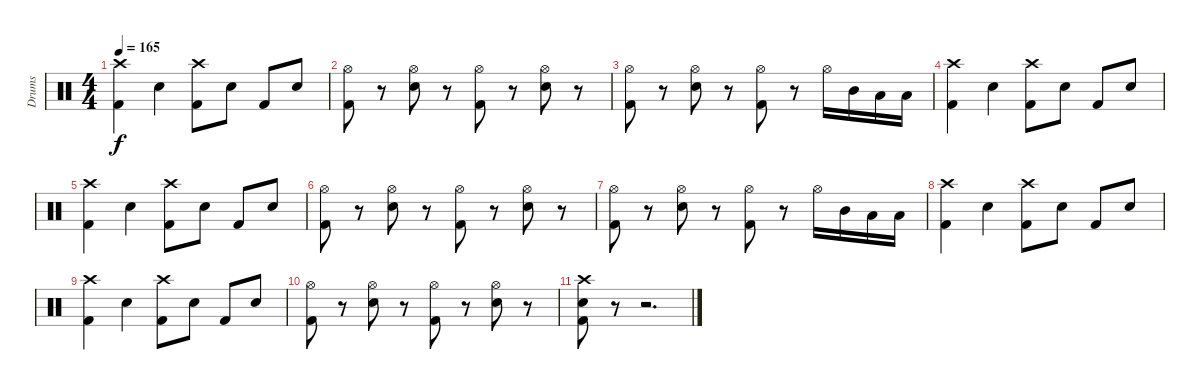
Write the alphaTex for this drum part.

\track ("Drums" "Drums") {instrument percussion}
\staff {score}
\articulation defaults
\ts (4 4)
\tempo 165
\clef neutral
\ks c
("Crash high (hit)" "Kick (hit) 2").4{dy f} "Snare (hit) 2".4 ("Crash high (hit)" "Kick (hit) 2").8 "Snare (hit) 2".8 "Kick (hit) 2".8 "Snare (hit) 2".8 |
("Hi-Hat (open)" "Kick (hit) 2").8 r.8 ("Hi-Hat (open)" "Snare (hit) 2").8 r.8 ("Hi-Hat (open)" "Kick (hit) 2").8 r.8 ("Hi-Hat (open)" "Snare (hit) 2").8 r.8 |
("Hi-Hat (open)" "Kick (hit) 2").8 r.8 ("Hi-Hat (open)" "Snare (hit) 2").8 r.8 ("Hi-Hat (open)" "Kick (hit) 2").8 r.8 "Hi-Hat (open)".16 "Mid Tom (hit)".16 "Low Tom (hit)".16 "Low Floor Tom (hit)".16 |
("Crash high (hit)" "Kick (hit) 2").4 "Snare (hit) 2".4 ("Crash high (hit)" "Kick (hit) 2").8 "Snare (hit) 2".8 "Kick (hit) 2".8 "Snare (hit) 2".8 |
("Crash high (hit)" "Kick (hit) 2").4 "Snare (hit) 2".4 ("Crash high (hit)" "Kick (hit) 2").8 "Snare (hit) 2".8 "Kick (hit) 2".8 "Snare (hit) 2".8 |
("Hi-Hat (open)" "Kick (hit) 2").8 r.8 ("Hi-Hat (open)" "Snare (hit) 2").8 r.8 ("Hi-Hat (open)" "Kick (hit) 2").8 r.8 ("Hi-Hat (open)" "Snare (hit) 2").8 r.8 |
("Hi-Hat (open)" "Kick (hit) 2").8 r.8 ("Hi-Hat (open)" "Snare (hit) 2").8 r.8 ("Hi-Hat (open)" "Kick (hit) 2").8 r.8 "Hi-Hat (open)".16 "Mid Tom (hit)".16 "Low Tom (hit)".16 "Low Floor Tom (hit)".16 |
("Crash high (hit)" "Kick (hit) 2").4 "Snare (hit) 2".4 ("Crash high (hit)" "Kick (hit) 2").8 "Snare (hit) 2".8 "Kick (hit) 2".8 "Snare (hit) 2".8 |
("Crash high (hit)" "Kick (hit) 2").4 "Snare (hit) 2".4 ("Crash high (hit)" "Kick (hit) 2").8 "Snare (hit) 2".8 "Kick (hit) 2".8 "Snare (hit) 2".8 |
("Hi-Hat (open)" "Kick (hit) 2").8 r.8 ("Hi-Hat (open)" "Snare (hit) 2").8 r.8 ("Hi-Hat (open)" "Kick (hit) 2").8 r.8 ("Hi-Hat (open)" "Snare (hit) 2").8 r.8 |
("Crash high (hit)" "Snare (hit) 2" "Kick (hit) 2").8 r.8 r.2{d}
